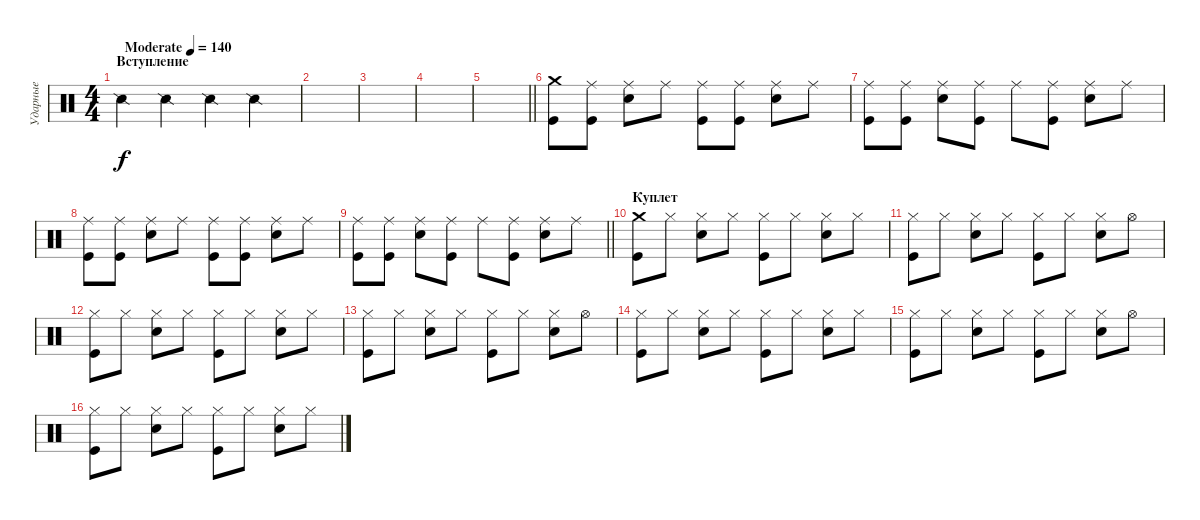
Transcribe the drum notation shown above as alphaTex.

\track ("Ударные" "Ударные") {instrument percussion}
\staff {score}
\articulation defaults
\ts (4 4)
\section ("" "Вступление")
\tempo (140 "Moderate")
\clef neutral
\ks c "Snare (side stick) 2".4{dy f} "Snare (side stick) 2".4 "Snare (side stick) 2".4 "Snare (side stick) 2".4
|
|
|
|
\barLineRight lightlight
|
\section ("" " ")
("Crash medium (hit)" "Kick (hit)").8 ("Ride (middle)" "Kick (hit)").8 ("Ride (middle)" "Electric Snare (hit)").8 "Ride (middle)".8 ("Ride (middle)" "Kick (hit)").8 ("Ride (middle)" "Kick (hit)").8 ("Ride (middle)" "Electric Snare (hit)").8 "Ride (middle)".8 |
("Ride (middle)" "Kick (hit)").8 ("Ride (middle)" "Kick (hit)").8 ("Ride (middle)" "Electric Snare (hit)").8 ("Ride (middle)" "Kick (hit)").8 "Ride (middle)".8 ("Ride (middle)" "Kick (hit)").8 ("Ride (middle)" "Electric Snare (hit)").8 "Ride (middle)".8 |
("Ride (middle)" "Kick (hit)").8 ("Ride (middle)" "Kick (hit)").8 ("Ride (middle)" "Electric Snare (hit)").8 "Ride (middle)".8 ("Ride (middle)" "Kick (hit)").8 ("Ride (middle)" "Kick (hit)").8 ("Ride (middle)" "Electric Snare (hit)").8 "Ride (middle)".8 |
\barLineRight lightlight
("Ride (middle)" "Kick (hit)").8 ("Ride (middle)" "Kick (hit)").8 ("Ride (middle)" "Electric Snare (hit)").8 ("Ride (middle)" "Kick (hit)").8 "Ride (middle)".8 ("Ride (middle)" "Kick (hit)").8 ("Ride (middle)" "Electric Snare (hit)").8 "Ride (middle)".8 |
\section ("" "Куплет")
("Crash medium (hit)" "Kick (hit)").8 "Hi-Hat (closed)".8 ("Hi-Hat (closed)" "Electric Snare (hit)").8 "Hi-Hat (closed)".8 ("Hi-Hat (closed)" "Kick (hit)").8 "Hi-Hat (closed)".8 ("Hi-Hat (closed)" "Electric Snare (hit)").8 "Hi-Hat (closed)".8 |
("Hi-Hat (closed)" "Kick (hit)").8 "Hi-Hat (closed)".8 ("Hi-Hat (closed)" "Electric Snare (hit)").8 "Hi-Hat (closed)".8 ("Hi-Hat (closed)" "Kick (hit)").8 "Hi-Hat (closed)".8 ("Hi-Hat (closed)" "Electric Snare (hit)").8 "Hi-Hat (open)".8 |
("Hi-Hat (closed)" "Kick (hit)").8 "Hi-Hat (closed)".8 ("Hi-Hat (closed)" "Electric Snare (hit)").8 "Hi-Hat (closed)".8 ("Hi-Hat (closed)" "Kick (hit)").8 "Hi-Hat (closed)".8 ("Hi-Hat (closed)" "Electric Snare (hit)").8 "Hi-Hat (closed)".8 |
("Hi-Hat (closed)" "Kick (hit)").8 "Hi-Hat (closed)".8 ("Hi-Hat (closed)" "Electric Snare (hit)").8 "Hi-Hat (closed)".8 ("Hi-Hat (closed)" "Kick (hit)").8 "Hi-Hat (closed)".8 ("Hi-Hat (closed)" "Electric Snare (hit)").8 "Hi-Hat (open)".8 |
("Hi-Hat (closed)" "Kick (hit)").8 "Hi-Hat (closed)".8 ("Hi-Hat (closed)" "Electric Snare (hit)").8 "Hi-Hat (closed)".8 ("Hi-Hat (closed)" "Kick (hit)").8 "Hi-Hat (closed)".8 ("Hi-Hat (closed)" "Electric Snare (hit)").8 "Hi-Hat (closed)".8 |
("Hi-Hat (closed)" "Kick (hit)").8 "Hi-Hat (closed)".8 ("Hi-Hat (closed)" "Electric Snare (hit)").8 "Hi-Hat (closed)".8 ("Hi-Hat (closed)" "Kick (hit)").8 "Hi-Hat (closed)".8 ("Hi-Hat (closed)" "Electric Snare (hit)").8 "Hi-Hat (open)".8 |
("Hi-Hat (closed)" "Kick (hit)").8 "Hi-Hat (closed)".8 ("Hi-Hat (closed)" "Electric Snare (hit)").8 "Hi-Hat (closed)".8 ("Hi-Hat (closed)" "Kick (hit)").8 "Hi-Hat (closed)".8 ("Hi-Hat (closed)" "Electric Snare (hit)").8 "Hi-Hat (closed)".8
